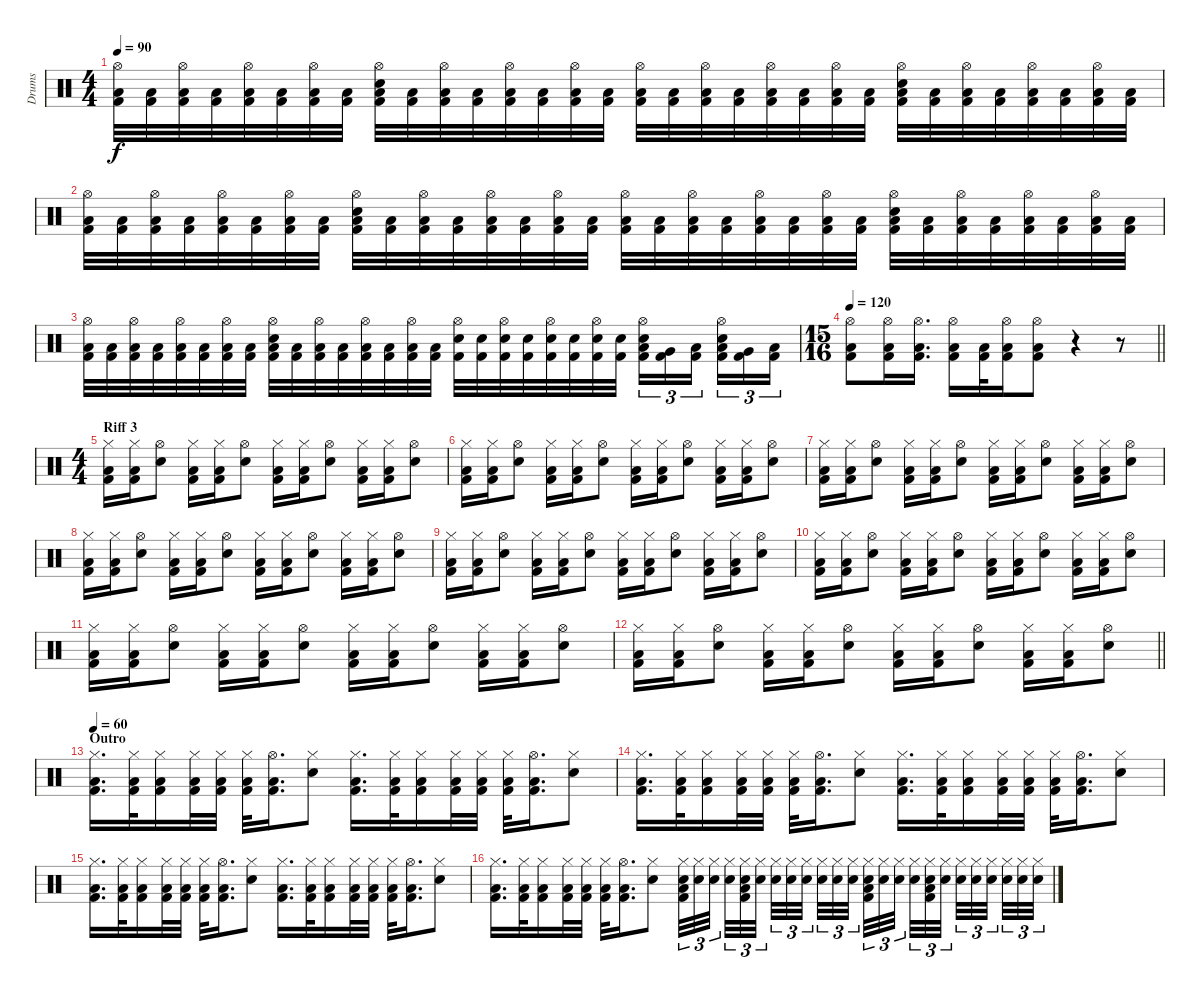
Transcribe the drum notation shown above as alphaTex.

\track ("Drums" "Drums") {instrument percussion}
\staff {score}
\articulation defaults
\ts (4 4)
\tempo 90
\clef neutral
\ks c
("Hi-Hat (open)" "Low Floor Tom (hit)" "Kick (hit) 2").32{dy f} ("Low Floor Tom (hit)" "Kick (hit) 2").32 ("Hi-Hat (open)" "Low Floor Tom (hit)" "Kick (hit) 2").32 ("Low Floor Tom (hit)" "Kick (hit) 2").32 ("Hi-Hat (open)" "Low Floor Tom (hit)" "Kick (hit) 2").32 ("Low Floor Tom (hit)" "Kick (hit) 2").32 ("Hi-Hat (open)" "Low Floor Tom (hit)" "Kick (hit) 2").32 ("Low Floor Tom (hit)" "Kick (hit) 2").32 ("Hi-Hat (open)" "Low Floor Tom (hit)" "Snare (hit) 2" "Kick (hit) 2").32 ("Low Floor Tom (hit)" "Kick (hit) 2").32 ("Hi-Hat (open)" "Low Floor Tom (hit)" "Kick (hit) 2").32 ("Low Floor Tom (hit)" "Kick (hit) 2").32 ("Hi-Hat (open)" "Low Floor Tom (hit)" "Kick (hit) 2").32 ("Low Floor Tom (hit)" "Kick (hit) 2").32 ("Hi-Hat (open)" "Low Floor Tom (hit)" "Kick (hit) 2").32 ("Low Floor Tom (hit)" "Kick (hit) 2").32 ("Hi-Hat (open)" "Low Floor Tom (hit)" "Kick (hit) 2").32 ("Low Floor Tom (hit)" "Kick (hit) 2").32 ("Hi-Hat (open)" "Low Floor Tom (hit)" "Kick (hit) 2").32 ("Low Floor Tom (hit)" "Kick (hit) 2").32 ("Hi-Hat (open)" "Low Floor Tom (hit)" "Kick (hit) 2").32 ("Low Floor Tom (hit)" "Kick (hit) 2").32 ("Hi-Hat (open)" "Low Floor Tom (hit)" "Kick (hit) 2").32 ("Low Floor Tom (hit)" "Kick (hit) 2").32 ("Hi-Hat (open)" "Low Floor Tom (hit)" "Snare (hit) 2" "Kick (hit) 2").32 ("Low Floor Tom (hit)" "Kick (hit) 2").32 ("Hi-Hat (open)" "Low Floor Tom (hit)" "Kick (hit) 2").32 ("Low Floor Tom (hit)" "Kick (hit) 2").32 ("Hi-Hat (open)" "Low Floor Tom (hit)" "Kick (hit) 2").32 ("Low Floor Tom (hit)" "Kick (hit) 2").32 ("Hi-Hat (open)" "Low Floor Tom (hit)" "Kick (hit) 2").32 ("Low Floor Tom (hit)" "Kick (hit) 2").32 |
("Hi-Hat (open)" "Low Floor Tom (hit)" "Kick (hit) 2").32 ("Low Floor Tom (hit)" "Kick (hit) 2").32 ("Hi-Hat (open)" "Low Floor Tom (hit)" "Kick (hit) 2").32 ("Low Floor Tom (hit)" "Kick (hit) 2").32 ("Hi-Hat (open)" "Low Floor Tom (hit)" "Kick (hit) 2").32 ("Low Floor Tom (hit)" "Kick (hit) 2").32 ("Hi-Hat (open)" "Low Floor Tom (hit)" "Kick (hit) 2").32 ("Low Floor Tom (hit)" "Kick (hit) 2").32 ("Hi-Hat (open)" "Low Floor Tom (hit)" "Snare (hit) 2" "Kick (hit) 2").32 ("Low Floor Tom (hit)" "Kick (hit) 2").32 ("Hi-Hat (open)" "Low Floor Tom (hit)" "Kick (hit) 2").32 ("Low Floor Tom (hit)" "Kick (hit) 2").32 ("Hi-Hat (open)" "Low Floor Tom (hit)" "Kick (hit) 2").32 ("Low Floor Tom (hit)" "Kick (hit) 2").32 ("Hi-Hat (open)" "Low Floor Tom (hit)" "Kick (hit) 2").32 ("Low Floor Tom (hit)" "Kick (hit) 2").32 ("Hi-Hat (open)" "Low Floor Tom (hit)" "Kick (hit) 2").32 ("Low Floor Tom (hit)" "Kick (hit) 2").32 ("Hi-Hat (open)" "Low Floor Tom (hit)" "Kick (hit) 2").32 ("Low Floor Tom (hit)" "Kick (hit) 2").32 ("Hi-Hat (open)" "Low Floor Tom (hit)" "Kick (hit) 2").32 ("Low Floor Tom (hit)" "Kick (hit) 2").32 ("Hi-Hat (open)" "Low Floor Tom (hit)" "Kick (hit) 2").32 ("Low Floor Tom (hit)" "Kick (hit) 2").32 ("Hi-Hat (open)" "Low Floor Tom (hit)" "Snare (hit) 2" "Kick (hit) 2").32 ("Low Floor Tom (hit)" "Kick (hit) 2").32 ("Hi-Hat (open)" "Low Floor Tom (hit)" "Kick (hit) 2").32 ("Low Floor Tom (hit)" "Kick (hit) 2").32 ("Hi-Hat (open)" "Low Floor Tom (hit)" "Kick (hit) 2").32 ("Low Floor Tom (hit)" "Kick (hit) 2").32 ("Hi-Hat (open)" "Low Floor Tom (hit)" "Kick (hit) 2").32 ("Low Floor Tom (hit)" "Kick (hit) 2").32 |
("Hi-Hat (open)" "Low Floor Tom (hit)" "Kick (hit) 2").32 ("Low Floor Tom (hit)" "Kick (hit) 2").32 ("Hi-Hat (open)" "Low Floor Tom (hit)" "Kick (hit) 2").32 ("Low Floor Tom (hit)" "Kick (hit) 2").32 ("Hi-Hat (open)" "Low Floor Tom (hit)" "Kick (hit) 2").32 ("Low Floor Tom (hit)" "Kick (hit) 2").32 ("Hi-Hat (open)" "Low Floor Tom (hit)" "Kick (hit) 2").32 ("Low Floor Tom (hit)" "Kick (hit) 2").32 ("Hi-Hat (open)" "Low Floor Tom (hit)" "Snare (hit) 2" "Kick (hit) 2").32 ("Low Floor Tom (hit)" "Kick (hit) 2").32 ("Hi-Hat (open)" "Low Floor Tom (hit)" "Kick (hit) 2").32 ("Low Floor Tom (hit)" "Kick (hit) 2").32 ("Hi-Hat (open)" "Low Floor Tom (hit)" "Kick (hit) 2").32 ("Low Floor Tom (hit)" "Kick (hit) 2").32 ("Hi-Hat (open)" "Low Floor Tom (hit)" "Kick (hit) 2").32 ("Low Floor Tom (hit)" "Kick (hit) 2").32 ("Hi-Hat (open)" "Snare (hit) 2" "Kick (hit) 2").32 ("Snare (hit) 2" "Kick (hit) 2").32 ("Hi-Hat (open)" "Snare (hit) 2" "Kick (hit) 2").32 ("Snare (hit) 2" "Kick (hit) 2").32 ("Hi-Hat (open)" "Snare (hit) 2" "Kick (hit) 2").32 ("Snare (hit) 2" "Kick (hit) 2").32 ("Hi-Hat (open)" "Snare (hit) 2" "Kick (hit) 2").32 ("Snare (hit) 2" "Kick (hit) 2").32 ("Hi-Hat (open)" "Low Tom (hit)" "Snare (hit) 2" "Kick (hit) 2").16{tu (3 2)} ("Very Low Tom (hit)" "Kick (hit) 2").16{tu (3 2)} ("Low Floor Tom (hit)" "Kick (hit) 2").16{tu (3 2) beam splitsecondary} ("Hi-Hat (open)" "Low Tom (hit)" "Snare (hit) 2" "Kick (hit) 2").16{tu (3 2)} ("Very Low Tom (hit)" "Kick (hit) 2").16{tu (3 2)} ("Low Floor Tom (hit)" "Kick (hit) 2").16{tu (3 2)} |
\ts (15 16)
\tempo 120
\barLineRight lightlight
("Hi-Hat (open)" "Low Floor Tom (hit)" "Kick (hit) 2").8 ("Hi-Hat (open)" "Low Floor Tom (hit)" "Kick (hit) 2").16 ("Hi-Hat (open)" "Low Floor Tom (hit)" "Kick (hit) 2").16{d} ("Hi-Hat (open)" "Low Floor Tom (hit)" "Kick (hit) 2").16 ("Low Floor Tom (hit)" "Kick (hit) 2").32 ("Hi-Hat (open)" "Low Floor Tom (hit)" "Kick (hit) 2").16 ("Hi-Hat (open)" "Low Floor Tom (hit)" "Kick (hit) 2").8 r.4 r.8 |
\ts (4 4)
\section ("" "Riff 3")
("Hi-Hat (closed)" "Low Floor Tom (hit)" "Kick (hit) 2").16 ("Hi-Hat (closed)" "Low Floor Tom (hit)" "Kick (hit) 2").16 ("Hi-Hat (open)" "Snare (hit) 2").8 ("Hi-Hat (closed)" "Low Floor Tom (hit)" "Kick (hit) 2").16 ("Hi-Hat (closed)" "Low Floor Tom (hit)" "Kick (hit) 2").16 ("Hi-Hat (open)" "Snare (hit) 2").8 ("Hi-Hat (closed)" "Low Floor Tom (hit)" "Kick (hit) 2").16 ("Hi-Hat (closed)" "Low Floor Tom (hit)" "Kick (hit) 2").16 ("Hi-Hat (open)" "Snare (hit) 2").8 ("Hi-Hat (closed)" "Low Floor Tom (hit)" "Kick (hit) 2").16 ("Hi-Hat (closed)" "Low Floor Tom (hit)" "Kick (hit) 2").16 ("Hi-Hat (open)" "Snare (hit) 2").8 |
("Hi-Hat (closed)" "Low Floor Tom (hit)" "Kick (hit) 2").16 ("Hi-Hat (closed)" "Low Floor Tom (hit)" "Kick (hit) 2").16 ("Hi-Hat (open)" "Snare (hit) 2").8 ("Hi-Hat (closed)" "Low Floor Tom (hit)" "Kick (hit) 2").16 ("Hi-Hat (closed)" "Low Floor Tom (hit)" "Kick (hit) 2").16 ("Hi-Hat (open)" "Snare (hit) 2").8 ("Hi-Hat (closed)" "Low Floor Tom (hit)" "Kick (hit) 2").16 ("Hi-Hat (closed)" "Low Floor Tom (hit)" "Kick (hit) 2").16 ("Hi-Hat (open)" "Snare (hit) 2").8 ("Hi-Hat (closed)" "Low Floor Tom (hit)" "Kick (hit) 2").16 ("Hi-Hat (closed)" "Low Floor Tom (hit)" "Kick (hit) 2").16 ("Hi-Hat (open)" "Snare (hit) 2").8 |
("Hi-Hat (closed)" "Low Floor Tom (hit)" "Kick (hit) 2").16 ("Hi-Hat (closed)" "Low Floor Tom (hit)" "Kick (hit) 2").16 ("Hi-Hat (open)" "Snare (hit) 2").8 ("Hi-Hat (closed)" "Low Floor Tom (hit)" "Kick (hit) 2").16 ("Hi-Hat (closed)" "Low Floor Tom (hit)" "Kick (hit) 2").16 ("Hi-Hat (open)" "Snare (hit) 2").8 ("Hi-Hat (closed)" "Low Floor Tom (hit)" "Kick (hit) 2").16 ("Hi-Hat (closed)" "Low Floor Tom (hit)" "Kick (hit) 2").16 ("Hi-Hat (open)" "Snare (hit) 2").8 ("Hi-Hat (closed)" "Low Floor Tom (hit)" "Kick (hit) 2").16 ("Hi-Hat (closed)" "Low Floor Tom (hit)" "Kick (hit) 2").16 ("Hi-Hat (open)" "Snare (hit) 2").8 |
("Hi-Hat (closed)" "Low Floor Tom (hit)" "Kick (hit) 2").16 ("Hi-Hat (closed)" "Low Floor Tom (hit)" "Kick (hit) 2").16 ("Hi-Hat (open)" "Snare (hit) 2").8 ("Hi-Hat (closed)" "Low Floor Tom (hit)" "Kick (hit) 2").16 ("Hi-Hat (closed)" "Low Floor Tom (hit)" "Kick (hit) 2").16 ("Hi-Hat (open)" "Snare (hit) 2").8 ("Hi-Hat (closed)" "Low Floor Tom (hit)" "Kick (hit) 2").16 ("Hi-Hat (closed)" "Low Floor Tom (hit)" "Kick (hit) 2").16 ("Hi-Hat (open)" "Snare (hit) 2").8 ("Hi-Hat (closed)" "Low Floor Tom (hit)" "Kick (hit) 2").16 ("Hi-Hat (closed)" "Low Floor Tom (hit)" "Kick (hit) 2").16 ("Hi-Hat (open)" "Snare (hit) 2").8 |
("Hi-Hat (closed)" "Low Floor Tom (hit)" "Kick (hit) 2").16 ("Hi-Hat (closed)" "Low Floor Tom (hit)" "Kick (hit) 2").16 ("Hi-Hat (open)" "Snare (hit) 2").8 ("Hi-Hat (closed)" "Low Floor Tom (hit)" "Kick (hit) 2").16 ("Hi-Hat (closed)" "Low Floor Tom (hit)" "Kick (hit) 2").16 ("Hi-Hat (open)" "Snare (hit) 2").8 ("Hi-Hat (closed)" "Low Floor Tom (hit)" "Kick (hit) 2").16 ("Hi-Hat (closed)" "Low Floor Tom (hit)" "Kick (hit) 2").16 ("Hi-Hat (open)" "Snare (hit) 2").8 ("Hi-Hat (closed)" "Low Floor Tom (hit)" "Kick (hit) 2").16 ("Hi-Hat (closed)" "Low Floor Tom (hit)" "Kick (hit) 2").16 ("Hi-Hat (open)" "Snare (hit) 2").8 |
("Hi-Hat (closed)" "Low Floor Tom (hit)" "Kick (hit) 2").16 ("Hi-Hat (closed)" "Low Floor Tom (hit)" "Kick (hit) 2").16 ("Hi-Hat (open)" "Snare (hit) 2").8 ("Hi-Hat (closed)" "Low Floor Tom (hit)" "Kick (hit) 2").16 ("Hi-Hat (closed)" "Low Floor Tom (hit)" "Kick (hit) 2").16 ("Hi-Hat (open)" "Snare (hit) 2").8 ("Hi-Hat (closed)" "Low Floor Tom (hit)" "Kick (hit) 2").16 ("Hi-Hat (closed)" "Low Floor Tom (hit)" "Kick (hit) 2").16 ("Hi-Hat (open)" "Snare (hit) 2").8 ("Hi-Hat (closed)" "Low Floor Tom (hit)" "Kick (hit) 2").16 ("Hi-Hat (closed)" "Low Floor Tom (hit)" "Kick (hit) 2").16 ("Hi-Hat (open)" "Snare (hit) 2").8 |
("Hi-Hat (closed)" "Low Floor Tom (hit)" "Kick (hit) 2").16 ("Hi-Hat (closed)" "Low Floor Tom (hit)" "Kick (hit) 2").16 ("Hi-Hat (open)" "Snare (hit) 2").8 ("Hi-Hat (closed)" "Low Floor Tom (hit)" "Kick (hit) 2").16 ("Hi-Hat (closed)" "Low Floor Tom (hit)" "Kick (hit) 2").16 ("Hi-Hat (open)" "Snare (hit) 2").8 ("Hi-Hat (closed)" "Low Floor Tom (hit)" "Kick (hit) 2").16 ("Hi-Hat (closed)" "Low Floor Tom (hit)" "Kick (hit) 2").16 ("Hi-Hat (open)" "Snare (hit) 2").8 ("Hi-Hat (closed)" "Low Floor Tom (hit)" "Kick (hit) 2").16 ("Hi-Hat (closed)" "Low Floor Tom (hit)" "Kick (hit) 2").16 ("Hi-Hat (open)" "Snare (hit) 2").8 |
\barLineRight lightlight
("Hi-Hat (closed)" "Low Floor Tom (hit)" "Kick (hit) 2").16 ("Hi-Hat (closed)" "Low Floor Tom (hit)" "Kick (hit) 2").16 ("Hi-Hat (open)" "Snare (hit) 2").8 ("Hi-Hat (closed)" "Low Floor Tom (hit)" "Kick (hit) 2").16 ("Hi-Hat (closed)" "Low Floor Tom (hit)" "Kick (hit) 2").16 ("Hi-Hat (open)" "Snare (hit) 2").8 ("Hi-Hat (closed)" "Low Floor Tom (hit)" "Kick (hit) 2").16 ("Hi-Hat (closed)" "Low Floor Tom (hit)" "Kick (hit) 2").16 ("Hi-Hat (open)" "Snare (hit) 2").8 ("Hi-Hat (closed)" "Low Floor Tom (hit)" "Kick (hit) 2").16 ("Hi-Hat (closed)" "Low Floor Tom (hit)" "Kick (hit) 2").16 ("Hi-Hat (open)" "Snare (hit) 2").8 |
\section ("" "Outro")
\tempo 60
("Hi-Hat (closed)" "Low Floor Tom (hit)" "Kick (hit) 2").16{d} ("Hi-Hat (closed)" "Low Floor Tom (hit)" "Kick (hit) 2").32 ("Hi-Hat (closed)" "Low Floor Tom (hit)" "Kick (hit) 2").16 ("Hi-Hat (closed)" "Low Floor Tom (hit)" "Kick (hit) 2").32 ("Hi-Hat (closed)" "Low Floor Tom (hit)" "Kick (hit) 2").32 ("Hi-Hat (closed)" "Low Floor Tom (hit)" "Kick (hit) 2").32 ("Hi-Hat (open)" "Low Floor Tom (hit)" "Kick (hit) 2").16{d} ("Hi-Hat (closed)" "Snare (hit) 2").8 ("Hi-Hat (closed)" "Low Floor Tom (hit)" "Kick (hit) 2").16{d} ("Hi-Hat (closed)" "Low Floor Tom (hit)" "Kick (hit) 2").32 ("Hi-Hat (closed)" "Low Floor Tom (hit)" "Kick (hit) 2").16 ("Hi-Hat (closed)" "Low Floor Tom (hit)" "Kick (hit) 2").32 ("Hi-Hat (closed)" "Low Floor Tom (hit)" "Kick (hit) 2").32 ("Hi-Hat (closed)" "Low Floor Tom (hit)" "Kick (hit) 2").32 ("Hi-Hat (open)" "Low Floor Tom (hit)" "Kick (hit) 2").16{d} ("Hi-Hat (closed)" "Snare (hit) 2").8 |
("Hi-Hat (closed)" "Low Floor Tom (hit)" "Kick (hit) 2").16{d} ("Hi-Hat (closed)" "Low Floor Tom (hit)" "Kick (hit) 2").32 ("Hi-Hat (closed)" "Low Floor Tom (hit)" "Kick (hit) 2").16 ("Hi-Hat (closed)" "Low Floor Tom (hit)" "Kick (hit) 2").32 ("Hi-Hat (closed)" "Low Floor Tom (hit)" "Kick (hit) 2").32 ("Hi-Hat (closed)" "Low Floor Tom (hit)" "Kick (hit) 2").32 ("Hi-Hat (open)" "Low Floor Tom (hit)" "Kick (hit) 2").16{d} ("Hi-Hat (closed)" "Snare (hit) 2").8 ("Hi-Hat (closed)" "Low Floor Tom (hit)" "Kick (hit) 2").16{d} ("Hi-Hat (closed)" "Low Floor Tom (hit)" "Kick (hit) 2").32 ("Hi-Hat (closed)" "Low Floor Tom (hit)" "Kick (hit) 2").16 ("Hi-Hat (closed)" "Low Floor Tom (hit)" "Kick (hit) 2").32 ("Hi-Hat (closed)" "Low Floor Tom (hit)" "Kick (hit) 2").32 ("Hi-Hat (closed)" "Low Floor Tom (hit)" "Kick (hit) 2").32 ("Hi-Hat (open)" "Low Floor Tom (hit)" "Kick (hit) 2").16{d} ("Hi-Hat (closed)" "Snare (hit) 2").8 |
("Hi-Hat (closed)" "Low Floor Tom (hit)" "Kick (hit) 2").16{d} ("Hi-Hat (closed)" "Low Floor Tom (hit)" "Kick (hit) 2").32 ("Hi-Hat (closed)" "Low Floor Tom (hit)" "Kick (hit) 2").16 ("Hi-Hat (closed)" "Low Floor Tom (hit)" "Kick (hit) 2").32 ("Hi-Hat (closed)" "Low Floor Tom (hit)" "Kick (hit) 2").32 ("Hi-Hat (closed)" "Low Floor Tom (hit)" "Kick (hit) 2").32 ("Hi-Hat (open)" "Low Floor Tom (hit)" "Kick (hit) 2").16{d} ("Hi-Hat (closed)" "Snare (hit) 2").8 ("Hi-Hat (closed)" "Low Floor Tom (hit)" "Kick (hit) 2").16{d} ("Hi-Hat (closed)" "Low Floor Tom (hit)" "Kick (hit) 2").32 ("Hi-Hat (closed)" "Low Floor Tom (hit)" "Kick (hit) 2").16 ("Hi-Hat (closed)" "Low Floor Tom (hit)" "Kick (hit) 2").32 ("Hi-Hat (closed)" "Low Floor Tom (hit)" "Kick (hit) 2").32 ("Hi-Hat (closed)" "Low Floor Tom (hit)" "Kick (hit) 2").32 ("Hi-Hat (open)" "Low Floor Tom (hit)" "Kick (hit) 2").16{d} ("Hi-Hat (closed)" "Snare (hit) 2").8 |
("Hi-Hat (closed)" "Low Floor Tom (hit)" "Kick (hit) 2").16{d} ("Hi-Hat (closed)" "Low Floor Tom (hit)" "Kick (hit) 2").32 ("Hi-Hat (closed)" "Low Floor Tom (hit)" "Kick (hit) 2").16 ("Hi-Hat (closed)" "Low Floor Tom (hit)" "Kick (hit) 2").32 ("Hi-Hat (closed)" "Low Floor Tom (hit)" "Kick (hit) 2").32 ("Hi-Hat (closed)" "Low Floor Tom (hit)" "Kick (hit) 2").32 ("Hi-Hat (open)" "Low Floor Tom (hit)" "Kick (hit) 2").16{d} ("Hi-Hat (closed)" "Snare (hit) 2").8 ("Hi-Hat (closed)" "Low Floor Tom (hit)" "Snare (hit) 2" "Kick (hit) 2").32{tu (3 2)} ("Hi-Hat (closed)" "Snare (hit) 2").32{tu (3 2)} ("Hi-Hat (closed)" "Snare (hit) 2").32{tu (3 2) beam splitsecondary} ("Hi-Hat (closed)" "Snare (hit) 2").32{tu (3 2)} ("Hi-Hat (closed)" "Low Floor Tom (hit)" "Snare (hit) 2" "Kick (hit) 2").32{tu (3 2)} ("Hi-Hat (closed)" "Snare (hit) 2").32{tu (3 2) beam splitsecondary} ("Hi-Hat (closed)" "Snare (hit) 2").32{tu (3 2)} ("Hi-Hat (closed)" "Snare (hit) 2").32{tu (3 2)} ("Hi-Hat (closed)" "Snare (hit) 2").32{tu (3 2) beam splitsecondary} ("Hi-Hat (closed)" "Snare (hit) 2").32{tu (3 2)} ("Hi-Hat (closed)" "Snare (hit) 2").32{tu (3 2)} ("Hi-Hat (closed)" "Snare (hit) 2").32{tu (3 2)} ("Hi-Hat (closed)" "Low Floor Tom (hit)" "Snare (hit) 2" "Kick (hit) 2").32{tu (3 2)} ("Hi-Hat (closed)" "Snare (hit) 2").32{tu (3 2)} ("Hi-Hat (closed)" "Snare (hit) 2").32{tu (3 2) beam splitsecondary} ("Hi-Hat (closed)" "Snare (hit) 2").32{tu (3 2)} ("Hi-Hat (closed)" "Low Floor Tom (hit)" "Snare (hit) 2" "Kick (hit) 2").32{tu (3 2)} ("Hi-Hat (closed)" "Snare (hit) 2").32{tu (3 2) beam splitsecondary} ("Hi-Hat (closed)" "Snare (hit) 2").32{tu (3 2)} ("Hi-Hat (closed)" "Snare (hit) 2").32{tu (3 2)} ("Hi-Hat (closed)" "Snare (hit) 2").32{tu (3 2) beam splitsecondary} ("Hi-Hat (closed)" "Snare (hit) 2").32{tu (3 2)} ("Hi-Hat (closed)" "Snare (hit) 2").32{tu (3 2)} ("Hi-Hat (closed)" "Snare (hit) 2").32{tu (3 2)}
